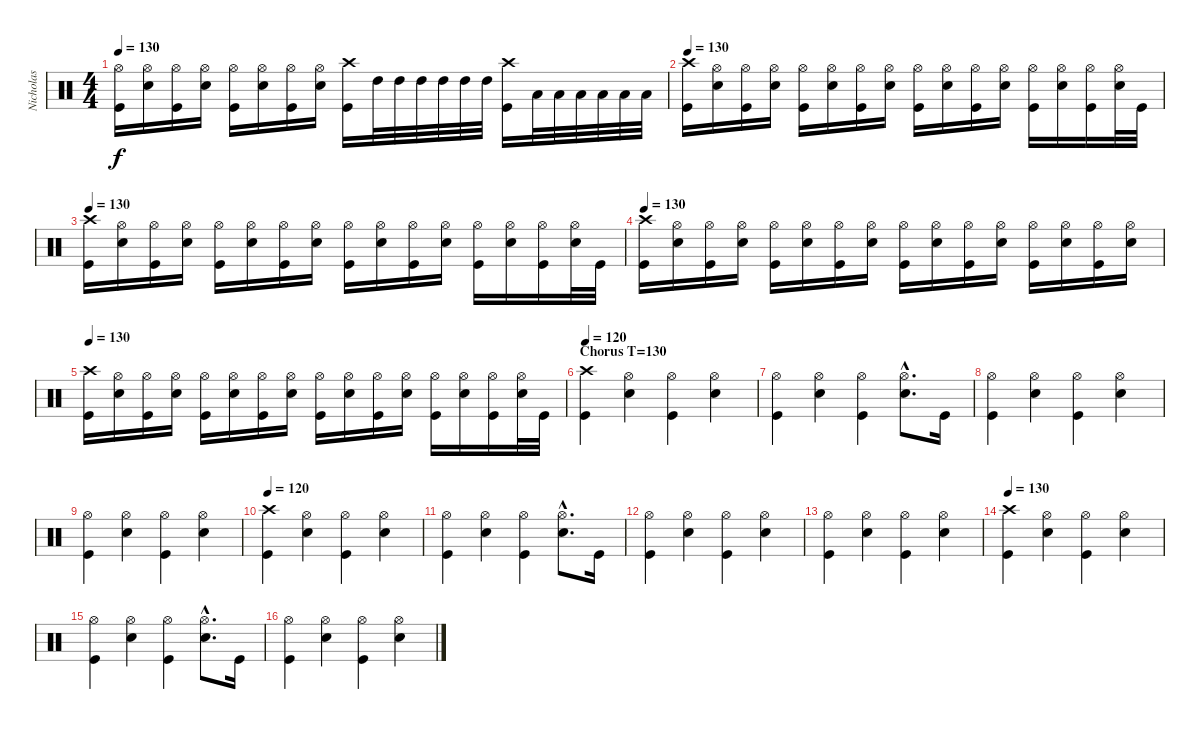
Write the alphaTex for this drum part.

\track ("Nicholas" "Nicholas") {instrument percussion}
\staff {score}
\articulation defaults
\ts (4 4)
\tempo 130
\clef neutral
\ks c
("Hi-Hat (open)" "Kick (hit)").16{dy f} ("Hi-Hat (open)" "Electric Snare (hit)").16 ("Hi-Hat (open)" "Kick (hit)").16 ("Hi-Hat (open)" "Electric Snare (hit)").16 ("Hi-Hat (open)" "Kick (hit)").16 ("Hi-Hat (open)" "Electric Snare (hit)").16 ("Hi-Hat (open)" "Kick (hit)").16 ("Hi-Hat (open)" "Electric Snare (hit)").16 ("Crash high (hit)" "Kick (hit)").16 "High Tom (hit)".32{balance 14} "High Tom (hit)".32{balance 10} "High Tom (hit)".32 "High Tom (hit)".32 "High Tom (hit)".32 "High Tom (hit)".32 ("Crash high (hit)" "Kick (hit)").16 "Low Tom (hit)".32 "Low Tom (hit)".32 "Low Tom (hit)".32 "Low Tom (hit)".32 "Low Tom (hit)".32 "Low Tom (hit)".32 |
\tempo 130
("Crash high (hit)" "Kick (hit)").16{balance 9} ("Hi-Hat (open)" "Electric Snare (hit)").16 ("Hi-Hat (open)" "Kick (hit)").16 ("Hi-Hat (open)" "Electric Snare (hit)").16 ("Hi-Hat (open)" "Kick (hit)").16 ("Hi-Hat (open)" "Electric Snare (hit)").16 ("Hi-Hat (open)" "Kick (hit)").16 ("Hi-Hat (open)" "Electric Snare (hit)").16 ("Hi-Hat (open)" "Kick (hit)").16 ("Hi-Hat (open)" "Electric Snare (hit)").16 ("Hi-Hat (open)" "Kick (hit)").16 ("Hi-Hat (open)" "Electric Snare (hit)").16 ("Hi-Hat (open)" "Kick (hit)").16 ("Hi-Hat (open)" "Electric Snare (hit)").16 ("Hi-Hat (open)" "Kick (hit)").16 ("Hi-Hat (open)" "Electric Snare (hit)").32 "Kick (hit)".32 |
\tempo 130
("Crash high (hit)" "Kick (hit)").16 ("Hi-Hat (open)" "Electric Snare (hit)").16 ("Hi-Hat (open)" "Kick (hit)").16 ("Hi-Hat (open)" "Electric Snare (hit)").16 ("Hi-Hat (open)" "Kick (hit)").16 ("Hi-Hat (open)" "Electric Snare (hit)").16 ("Hi-Hat (open)" "Kick (hit)").16 ("Hi-Hat (open)" "Electric Snare (hit)").16 ("Hi-Hat (open)" "Kick (hit)").16 ("Hi-Hat (open)" "Electric Snare (hit)").16 ("Hi-Hat (open)" "Kick (hit)").16 ("Hi-Hat (open)" "Electric Snare (hit)").16 ("Hi-Hat (open)" "Kick (hit)").16 ("Hi-Hat (open)" "Electric Snare (hit)").16 ("Hi-Hat (open)" "Kick (hit)").16 ("Hi-Hat (open)" "Electric Snare (hit)").32 "Kick (hit)".32 |
\tempo 130
("Crash high (hit)" "Kick (hit)").16 ("Hi-Hat (open)" "Electric Snare (hit)").16 ("Hi-Hat (open)" "Kick (hit)").16 ("Hi-Hat (open)" "Electric Snare (hit)").16 ("Hi-Hat (open)" "Kick (hit)").16 ("Hi-Hat (open)" "Electric Snare (hit)").16 ("Hi-Hat (open)" "Kick (hit)").16 ("Hi-Hat (open)" "Electric Snare (hit)").16 ("Hi-Hat (open)" "Kick (hit)").16 ("Hi-Hat (open)" "Electric Snare (hit)").16 ("Hi-Hat (open)" "Kick (hit)").16 ("Hi-Hat (open)" "Electric Snare (hit)").16 ("Hi-Hat (open)" "Kick (hit)").16 ("Hi-Hat (open)" "Electric Snare (hit)").16 ("Hi-Hat (open)" "Kick (hit)").16 ("Hi-Hat (open)" "Electric Snare (hit)").16 |
\tempo 130
("Crash high (hit)" "Kick (hit)").16 ("Hi-Hat (open)" "Electric Snare (hit)").16 ("Hi-Hat (open)" "Kick (hit)").16 ("Hi-Hat (open)" "Electric Snare (hit)").16 ("Hi-Hat (open)" "Kick (hit)").16 ("Hi-Hat (open)" "Electric Snare (hit)").16 ("Hi-Hat (open)" "Kick (hit)").16 ("Hi-Hat (open)" "Electric Snare (hit)").16 ("Hi-Hat (open)" "Kick (hit)").16 ("Hi-Hat (open)" "Electric Snare (hit)").16 ("Hi-Hat (open)" "Kick (hit)").16 ("Hi-Hat (open)" "Electric Snare (hit)").16 ("Hi-Hat (open)" "Kick (hit)").16 ("Hi-Hat (open)" "Electric Snare (hit)").16 ("Hi-Hat (open)" "Kick (hit)").16 ("Hi-Hat (open)" "Electric Snare (hit)").32 "Kick (hit)".32 |
\section ("" "Chorus T=130")
\tempo 130
\tempo 120
("Crash high (hit)" "Kick (hit)").4 ("Hi-Hat (open)" "Electric Snare (hit)").4 ("Hi-Hat (open)" "Kick (hit)").4 ("Hi-Hat (open)" "Electric Snare (hit)").4 |
("Hi-Hat (open)" "Kick (hit)").4 ("Hi-Hat (open)" "Electric Snare (hit)").4 ("Hi-Hat (open)" "Kick (hit)").4 ("Hi-Hat (open)"{hac} "Electric Snare (hit)"{hac}).8{d} "Kick (hit)".16 |
("Hi-Hat (open)" "Kick (hit)").4 ("Hi-Hat (open)" "Electric Snare (hit)").4 ("Hi-Hat (open)" "Kick (hit)").4 ("Hi-Hat (open)" "Electric Snare (hit)").4 |
("Hi-Hat (open)" "Kick (hit)").4 ("Hi-Hat (open)" "Electric Snare (hit)").4 ("Hi-Hat (open)" "Kick (hit)").4 ("Hi-Hat (open)" "Electric Snare (hit)").4 |
\tempo 130
\tempo 120
("Crash high (hit)" "Kick (hit)").4 ("Hi-Hat (open)" "Electric Snare (hit)").4 ("Hi-Hat (open)" "Kick (hit)").4 ("Hi-Hat (open)" "Electric Snare (hit)").4 |
("Hi-Hat (open)" "Kick (hit)").4 ("Hi-Hat (open)" "Electric Snare (hit)").4 ("Hi-Hat (open)" "Kick (hit)").4 ("Hi-Hat (open)"{hac} "Electric Snare (hit)"{hac}).8{d} "Kick (hit)".16 |
("Hi-Hat (open)" "Kick (hit)").4 ("Hi-Hat (open)" "Electric Snare (hit)").4 ("Hi-Hat (open)" "Kick (hit)").4 ("Hi-Hat (open)" "Electric Snare (hit)").4 |
("Hi-Hat (open)" "Kick (hit)").4 ("Hi-Hat (open)" "Electric Snare (hit)").4 ("Hi-Hat (open)" "Kick (hit)").4 ("Hi-Hat (open)" "Electric Snare (hit)").4 |
\tempo 130
("Crash high (hit)" "Kick (hit)").4 ("Hi-Hat (open)" "Electric Snare (hit)").4 ("Hi-Hat (open)" "Kick (hit)").4 ("Hi-Hat (open)" "Electric Snare (hit)").4 |
("Hi-Hat (open)" "Kick (hit)").4 ("Hi-Hat (open)" "Electric Snare (hit)").4 ("Hi-Hat (open)" "Kick (hit)").4 ("Hi-Hat (open)"{hac} "Electric Snare (hit)"{hac}).8{d} "Kick (hit)".16 |
("Hi-Hat (open)" "Kick (hit)").4 ("Hi-Hat (open)" "Electric Snare (hit)").4 ("Hi-Hat (open)" "Kick (hit)").4 ("Hi-Hat (open)" "Electric Snare (hit)").4
